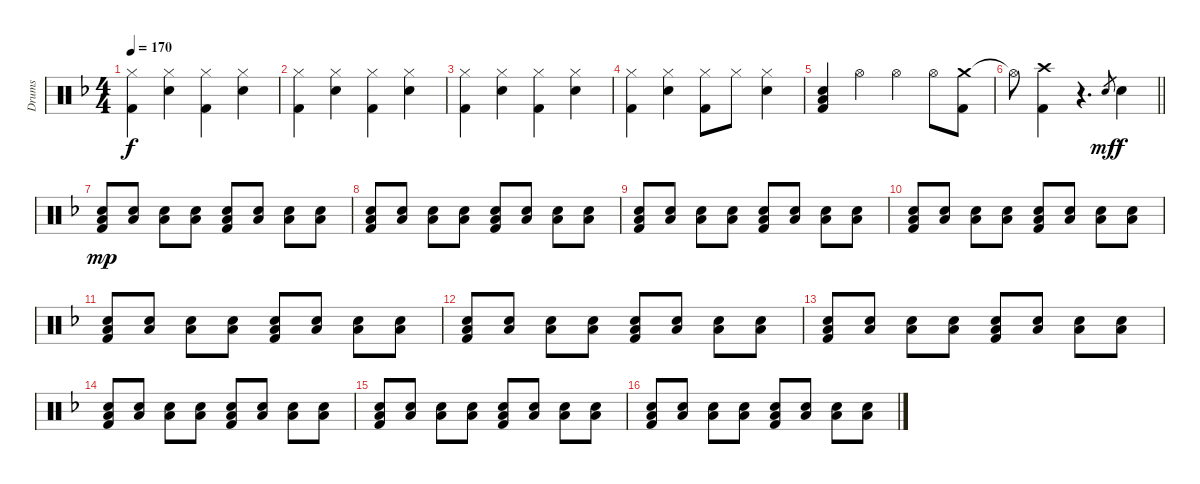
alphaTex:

\track ("Drums" "Drums") {instrument percussion}
\staff {score}
\articulation defaults
\ts (4 4)
\tempo 170
\clef neutral
\ks f
("Hi-Hat (closed)" "Kick (hit) 2").4{dy f} ("Hi-Hat (closed)" "Electric Snare (hit)").4 ("Hi-Hat (closed)" "Kick (hit) 2").4 ("Hi-Hat (closed)" "Electric Snare (hit)").4 |
("Hi-Hat (closed)" "Kick (hit) 2").4 ("Hi-Hat (closed)" "Electric Snare (hit)").4 ("Hi-Hat (closed)" "Kick (hit) 2").4 ("Hi-Hat (closed)" "Electric Snare (hit)").4 |
("Hi-Hat (closed)" "Kick (hit) 2").4 ("Hi-Hat (closed)" "Electric Snare (hit)").4 ("Hi-Hat (closed)" "Kick (hit) 2").4 ("Hi-Hat (closed)" "Electric Snare (hit)").4 |
("Hi-Hat (closed)" "Kick (hit) 2").4 ("Hi-Hat (closed)" "Electric Snare (hit)").4 ("Hi-Hat (closed)" "Kick (hit) 2").8 "Hi-Hat (closed)".8 ("Hi-Hat (closed)" "Electric Snare (hit)").4 |
("Low Floor Tom (hit)" "Electric Snare (hit)" "Kick (hit) 2").4 "Hi-Hat (open)".4 "Hi-Hat (open)".4 "Hi-Hat (open)".8 ("Crash medium (hit)" "Kick (hit) 2").8 |
\barLineRight lightlight "Hi-Hat (open)"{t}.8
("Crash high (hit)" "Kick (hit) 2").4 r.4{d} "Electric Snare (hit)".8{gr dy mf} "Electric Snare (hit)".4{dy f} |
("Low Floor Tom (hit)" "Electric Snare (hit)" "Kick (hit) 2").8{dy mp} ("Low Floor Tom (hit)" "Electric Snare (hit)").8 ("Low Floor Tom (hit)" "Electric Snare (hit)").8 ("Low Floor Tom (hit)" "Electric Snare (hit)").8 ("Low Floor Tom (hit)" "Electric Snare (hit)" "Kick (hit) 2").8 ("Low Floor Tom (hit)" "Electric Snare (hit)").8 ("Low Floor Tom (hit)" "Electric Snare (hit)").8 ("Low Floor Tom (hit)" "Electric Snare (hit)").8 |
("Low Floor Tom (hit)" "Electric Snare (hit)" "Kick (hit) 2").8 ("Low Floor Tom (hit)" "Electric Snare (hit)").8 ("Low Floor Tom (hit)" "Electric Snare (hit)").8 ("Low Floor Tom (hit)" "Electric Snare (hit)").8 ("Low Floor Tom (hit)" "Electric Snare (hit)" "Kick (hit) 2").8 ("Low Floor Tom (hit)" "Electric Snare (hit)").8 ("Low Floor Tom (hit)" "Electric Snare (hit)").8 ("Low Floor Tom (hit)" "Electric Snare (hit)").8 |
("Low Floor Tom (hit)" "Electric Snare (hit)" "Kick (hit) 2").8 ("Low Floor Tom (hit)" "Electric Snare (hit)").8 ("Low Floor Tom (hit)" "Electric Snare (hit)").8 ("Low Floor Tom (hit)" "Electric Snare (hit)").8 ("Low Floor Tom (hit)" "Electric Snare (hit)" "Kick (hit) 2").8 ("Low Floor Tom (hit)" "Electric Snare (hit)").8 ("Low Floor Tom (hit)" "Electric Snare (hit)").8 ("Low Floor Tom (hit)" "Electric Snare (hit)").8 |
("Low Floor Tom (hit)" "Electric Snare (hit)" "Kick (hit) 2").8 ("Low Floor Tom (hit)" "Electric Snare (hit)").8 ("Low Floor Tom (hit)" "Electric Snare (hit)").8 ("Low Floor Tom (hit)" "Electric Snare (hit)").8 ("Low Floor Tom (hit)" "Electric Snare (hit)" "Kick (hit) 2").8 ("Low Floor Tom (hit)" "Electric Snare (hit)").8 ("Low Floor Tom (hit)" "Electric Snare (hit)").8 ("Low Floor Tom (hit)" "Electric Snare (hit)").8 |
("Low Floor Tom (hit)" "Electric Snare (hit)" "Kick (hit) 2").8 ("Low Floor Tom (hit)" "Electric Snare (hit)").8 ("Low Floor Tom (hit)" "Electric Snare (hit)").8 ("Low Floor Tom (hit)" "Electric Snare (hit)").8 ("Low Floor Tom (hit)" "Electric Snare (hit)" "Kick (hit) 2").8 ("Low Floor Tom (hit)" "Electric Snare (hit)").8 ("Low Floor Tom (hit)" "Electric Snare (hit)").8 ("Low Floor Tom (hit)" "Electric Snare (hit)").8 |
("Low Floor Tom (hit)" "Electric Snare (hit)" "Kick (hit) 2").8 ("Low Floor Tom (hit)" "Electric Snare (hit)").8 ("Low Floor Tom (hit)" "Electric Snare (hit)").8 ("Low Floor Tom (hit)" "Electric Snare (hit)").8 ("Low Floor Tom (hit)" "Electric Snare (hit)" "Kick (hit) 2").8 ("Low Floor Tom (hit)" "Electric Snare (hit)").8 ("Low Floor Tom (hit)" "Electric Snare (hit)").8 ("Low Floor Tom (hit)" "Electric Snare (hit)").8 |
("Low Floor Tom (hit)" "Electric Snare (hit)" "Kick (hit) 2").8 ("Low Floor Tom (hit)" "Electric Snare (hit)").8 ("Low Floor Tom (hit)" "Electric Snare (hit)").8 ("Low Floor Tom (hit)" "Electric Snare (hit)").8 ("Low Floor Tom (hit)" "Electric Snare (hit)" "Kick (hit) 2").8 ("Low Floor Tom (hit)" "Electric Snare (hit)").8 ("Low Floor Tom (hit)" "Electric Snare (hit)").8 ("Low Floor Tom (hit)" "Electric Snare (hit)").8 |
("Low Floor Tom (hit)" "Electric Snare (hit)" "Kick (hit) 2").8 ("Low Floor Tom (hit)" "Electric Snare (hit)").8 ("Low Floor Tom (hit)" "Electric Snare (hit)").8 ("Low Floor Tom (hit)" "Electric Snare (hit)").8 ("Low Floor Tom (hit)" "Electric Snare (hit)" "Kick (hit) 2").8 ("Low Floor Tom (hit)" "Electric Snare (hit)").8 ("Low Floor Tom (hit)" "Electric Snare (hit)").8 ("Low Floor Tom (hit)" "Electric Snare (hit)").8 |
("Low Floor Tom (hit)" "Electric Snare (hit)" "Kick (hit) 2").8 ("Low Floor Tom (hit)" "Electric Snare (hit)").8 ("Low Floor Tom (hit)" "Electric Snare (hit)").8 ("Low Floor Tom (hit)" "Electric Snare (hit)").8 ("Low Floor Tom (hit)" "Electric Snare (hit)" "Kick (hit) 2").8 ("Low Floor Tom (hit)" "Electric Snare (hit)").8 ("Low Floor Tom (hit)" "Electric Snare (hit)").8 ("Low Floor Tom (hit)" "Electric Snare (hit)").8 |
("Low Floor Tom (hit)" "Electric Snare (hit)" "Kick (hit) 2").8 ("Low Floor Tom (hit)" "Electric Snare (hit)").8 ("Low Floor Tom (hit)" "Electric Snare (hit)").8 ("Low Floor Tom (hit)" "Electric Snare (hit)").8 ("Low Floor Tom (hit)" "Electric Snare (hit)" "Kick (hit) 2").8 ("Low Floor Tom (hit)" "Electric Snare (hit)").8 ("Low Floor Tom (hit)" "Electric Snare (hit)").8 ("Low Floor Tom (hit)" "Electric Snare (hit)").8
